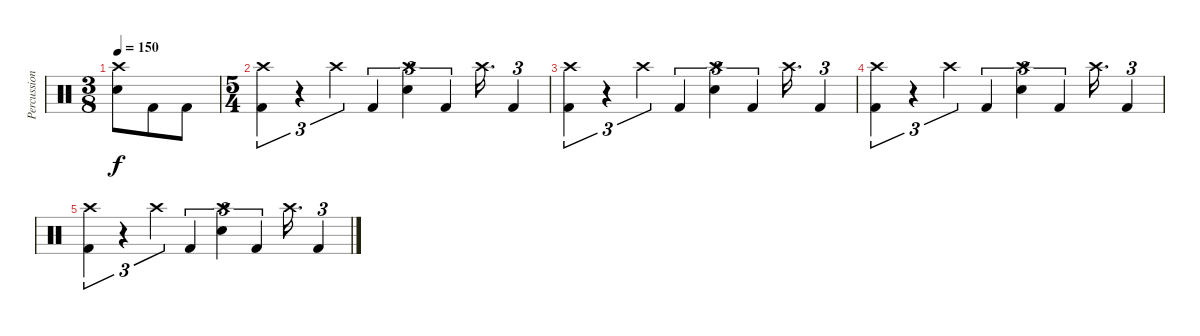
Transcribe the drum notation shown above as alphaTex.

\track ("Percussion" "Percussion") {instrument percussion}
\staff {score}
\articulation defaults
\ts (3 8)
\tempo 150
\clef neutral
\ks c
("Crash high (hit)" "Electric Snare (hit)").8{dy f} "Kick (hit) 2".8 "Kick (hit) 2".8 |
\ts (5 4)
("Crash high (hit)" "Kick (hit) 2").4{tu (3 2)} r.4{tu (3 2)} "Crash high (hit)".4{tu (3 2)} "Kick (hit) 2".4{tu (3 2)} ("Crash high (hit)" "Electric Snare (hit)").4{tu (3 2)} "Kick (hit) 2".4{tu (3 2)} "Crash high (hit)".16{d} "Kick (hit) 2".4{tu (3 2)} |
("Crash high (hit)" "Kick (hit) 2").4{tu (3 2)} r.4{tu (3 2)} "Crash high (hit)".4{tu (3 2)} "Kick (hit) 2".4{tu (3 2)} ("Crash high (hit)" "Electric Snare (hit)").4{tu (3 2)} "Kick (hit) 2".4{tu (3 2)} "Crash high (hit)".16{d} "Kick (hit) 2".4{tu (3 2)} |
("Crash high (hit)" "Kick (hit) 2").4{tu (3 2)} r.4{tu (3 2)} "Crash high (hit)".4{tu (3 2)} "Kick (hit) 2".4{tu (3 2)} ("Crash high (hit)" "Electric Snare (hit)").4{tu (3 2)} "Kick (hit) 2".4{tu (3 2)} "Crash high (hit)".16{d} "Kick (hit) 2".4{tu (3 2)} |
("Crash high (hit)" "Kick (hit) 2").4{tu (3 2)} r.4{tu (3 2)} "Crash high (hit)".4{tu (3 2)} "Kick (hit) 2".4{tu (3 2)} ("Crash high (hit)" "Electric Snare (hit)").4{tu (3 2)} "Kick (hit) 2".4{tu (3 2)} "Crash high (hit)".16{d} "Kick (hit) 2".4{tu (3 2)}
